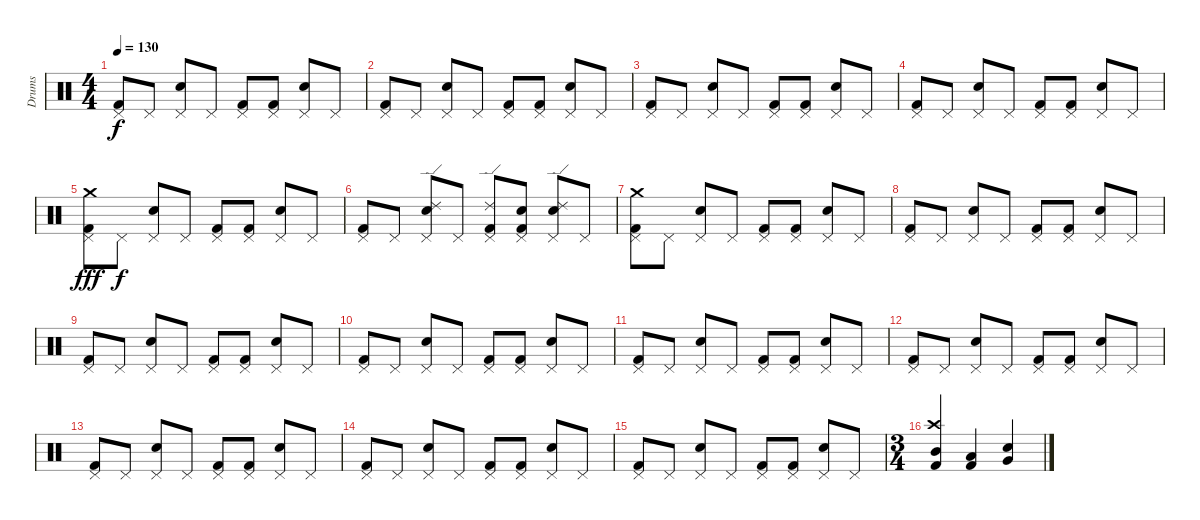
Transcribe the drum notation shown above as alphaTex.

\track ("Drums" "Drums") {instrument percussion}
\staff {score}
\articulation defaults
\ts (4 4)
\tempo 130
\clef neutral
\ks c
("Kick (hit) 2" "Pedal Hi-Hat (hit)").8{dy f} "Pedal Hi-Hat (hit)".8 ("Electric Snare (hit)" "Pedal Hi-Hat (hit)").8 "Pedal Hi-Hat (hit)".8 ("Kick (hit) 2" "Pedal Hi-Hat (hit)").8 ("Kick (hit) 2" "Pedal Hi-Hat (hit)").8 ("Electric Snare (hit)" "Pedal Hi-Hat (hit)").8 "Pedal Hi-Hat (hit)".8 |
("Kick (hit) 2" "Pedal Hi-Hat (hit)").8 "Pedal Hi-Hat (hit)".8 ("Electric Snare (hit)" "Pedal Hi-Hat (hit)").8 "Pedal Hi-Hat (hit)".8 ("Kick (hit) 2" "Pedal Hi-Hat (hit)").8 ("Kick (hit) 2" "Pedal Hi-Hat (hit)").8 ("Electric Snare (hit)" "Pedal Hi-Hat (hit)").8 "Pedal Hi-Hat (hit)".8 |
("Kick (hit) 2" "Pedal Hi-Hat (hit)").8 "Pedal Hi-Hat (hit)".8 ("Electric Snare (hit)" "Pedal Hi-Hat (hit)").8 "Pedal Hi-Hat (hit)".8 ("Kick (hit) 2" "Pedal Hi-Hat (hit)").8 ("Kick (hit) 2" "Pedal Hi-Hat (hit)").8 ("Electric Snare (hit)" "Pedal Hi-Hat (hit)").8 "Pedal Hi-Hat (hit)".8 |
("Kick (hit) 2" "Pedal Hi-Hat (hit)").8 "Pedal Hi-Hat (hit)".8 ("Electric Snare (hit)" "Pedal Hi-Hat (hit)").8 "Pedal Hi-Hat (hit)".8 ("Kick (hit) 2" "Pedal Hi-Hat (hit)").8 ("Kick (hit) 2" "Pedal Hi-Hat (hit)").8 ("Electric Snare (hit)" "Pedal Hi-Hat (hit)").8 "Pedal Hi-Hat (hit)".8 |
("Kick (hit) 2" "Crash medium (hit)" "Pedal Hi-Hat (hit)").8{dy fff} "Pedal Hi-Hat (hit)".8{dy f} ("Electric Snare (hit)" "Pedal Hi-Hat (hit)").8 "Pedal Hi-Hat (hit)".8 ("Kick (hit) 2" "Pedal Hi-Hat (hit)").8 ("Kick (hit) 2" "Pedal Hi-Hat (hit)").8 ("Electric Snare (hit)" "Pedal Hi-Hat (hit)").8 "Pedal Hi-Hat (hit)".8 |
("Kick (hit) 2" "Pedal Hi-Hat (hit)").8 "Pedal Hi-Hat (hit)".8 ("Ride (edge) 2" "Electric Snare (hit)" "Pedal Hi-Hat (hit)").8 "Pedal Hi-Hat (hit)".8 ("Kick (hit) 2" "Ride (edge) 2" "Pedal Hi-Hat (hit)").8 ("Kick (hit) 2" "Electric Snare (hit)" "Pedal Hi-Hat (hit)").8 ("Ride (edge) 2" "Electric Snare (hit)" "Pedal Hi-Hat (hit)").8 "Pedal Hi-Hat (hit)".8 |
("Kick (hit) 2" "Crash medium (hit)" "Pedal Hi-Hat (hit)").8 "Pedal Hi-Hat (hit)".8 ("Electric Snare (hit)" "Pedal Hi-Hat (hit)").8 "Pedal Hi-Hat (hit)".8 ("Kick (hit) 2" "Pedal Hi-Hat (hit)").8 ("Kick (hit) 2" "Pedal Hi-Hat (hit)").8 ("Electric Snare (hit)" "Pedal Hi-Hat (hit)").8 "Pedal Hi-Hat (hit)".8 |
("Kick (hit) 2" "Pedal Hi-Hat (hit)").8 "Pedal Hi-Hat (hit)".8 ("Electric Snare (hit)" "Pedal Hi-Hat (hit)").8 "Pedal Hi-Hat (hit)".8 ("Kick (hit) 2" "Pedal Hi-Hat (hit)").8 ("Kick (hit) 2" "Pedal Hi-Hat (hit)").8 ("Electric Snare (hit)" "Pedal Hi-Hat (hit)").8 "Pedal Hi-Hat (hit)".8 |
("Kick (hit) 2" "Pedal Hi-Hat (hit)").8 "Pedal Hi-Hat (hit)".8 ("Electric Snare (hit)" "Pedal Hi-Hat (hit)").8 "Pedal Hi-Hat (hit)".8 ("Kick (hit) 2" "Pedal Hi-Hat (hit)").8 ("Kick (hit) 2" "Pedal Hi-Hat (hit)").8 ("Electric Snare (hit)" "Pedal Hi-Hat (hit)").8 "Pedal Hi-Hat (hit)".8 |
("Kick (hit) 2" "Pedal Hi-Hat (hit)").8 "Pedal Hi-Hat (hit)".8 ("Electric Snare (hit)" "Pedal Hi-Hat (hit)").8 "Pedal Hi-Hat (hit)".8 ("Kick (hit) 2" "Pedal Hi-Hat (hit)").8 ("Kick (hit) 2" "Pedal Hi-Hat (hit)").8 ("Electric Snare (hit)" "Pedal Hi-Hat (hit)").8 "Pedal Hi-Hat (hit)".8 |
("Kick (hit) 2" "Pedal Hi-Hat (hit)").8 "Pedal Hi-Hat (hit)".8 ("Electric Snare (hit)" "Pedal Hi-Hat (hit)").8 "Pedal Hi-Hat (hit)".8 ("Kick (hit) 2" "Pedal Hi-Hat (hit)").8 ("Kick (hit) 2" "Pedal Hi-Hat (hit)").8 ("Electric Snare (hit)" "Pedal Hi-Hat (hit)").8 "Pedal Hi-Hat (hit)".8 |
("Kick (hit) 2" "Pedal Hi-Hat (hit)").8 "Pedal Hi-Hat (hit)".8 ("Electric Snare (hit)" "Pedal Hi-Hat (hit)").8 "Pedal Hi-Hat (hit)".8 ("Kick (hit) 2" "Pedal Hi-Hat (hit)").8 ("Kick (hit) 2" "Pedal Hi-Hat (hit)").8 ("Electric Snare (hit)" "Pedal Hi-Hat (hit)").8 "Pedal Hi-Hat (hit)".8 |
("Kick (hit) 2" "Pedal Hi-Hat (hit)").8 "Pedal Hi-Hat (hit)".8 ("Electric Snare (hit)" "Pedal Hi-Hat (hit)").8 "Pedal Hi-Hat (hit)".8 ("Kick (hit) 2" "Pedal Hi-Hat (hit)").8 ("Kick (hit) 2" "Pedal Hi-Hat (hit)").8 ("Electric Snare (hit)" "Pedal Hi-Hat (hit)").8 "Pedal Hi-Hat (hit)".8 |
("Kick (hit) 2" "Pedal Hi-Hat (hit)").8 "Pedal Hi-Hat (hit)".8 ("Electric Snare (hit)" "Pedal Hi-Hat (hit)").8 "Pedal Hi-Hat (hit)".8 ("Kick (hit) 2" "Pedal Hi-Hat (hit)").8 ("Kick (hit) 2" "Pedal Hi-Hat (hit)").8 ("Electric Snare (hit)" "Pedal Hi-Hat (hit)").8 "Pedal Hi-Hat (hit)".8 |
("Kick (hit) 2" "Pedal Hi-Hat (hit)").8 "Pedal Hi-Hat (hit)".8 ("Electric Snare (hit)" "Pedal Hi-Hat (hit)").8 "Pedal Hi-Hat (hit)".8 ("Kick (hit) 2" "Pedal Hi-Hat (hit)").8 ("Kick (hit) 2" "Pedal Hi-Hat (hit)").8 ("Electric Snare (hit)" "Pedal Hi-Hat (hit)").8 "Pedal Hi-Hat (hit)".8 |
\ts (3 4)
("Crash high (hit)" "Mid Tom (hit)" "Kick (hit) 2").4 ("Low Tom (hit)" "Kick (hit) 2").4 ("Very Low Tom (hit)" "Snare (hit)").4
